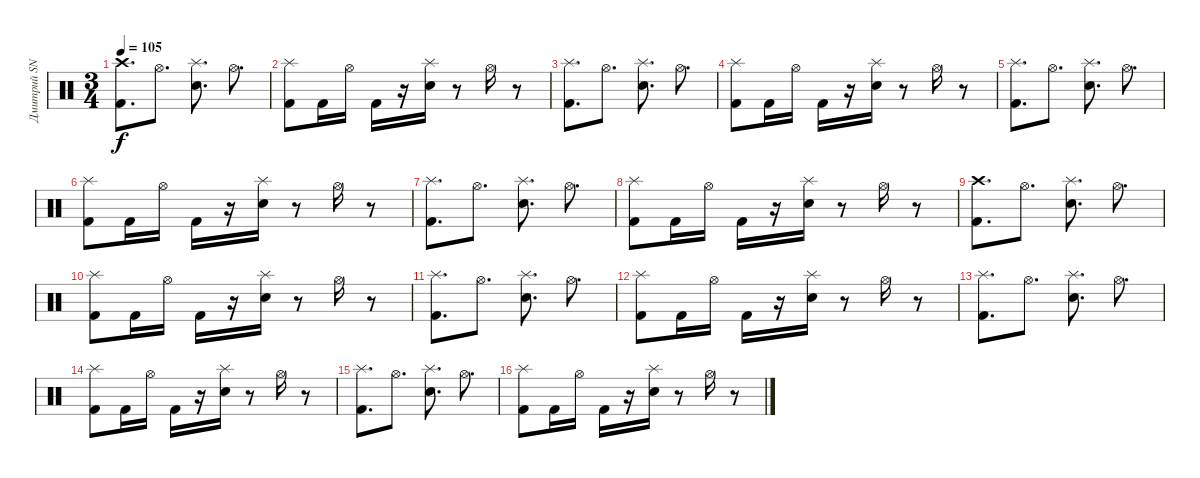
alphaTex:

\track ("Дмитрий SNAKE Хакимов" "Дмитрий SN") {instrument percussion}
\staff {score}
\articulation defaults
\ts (3 4)
\tempo 105
\clef neutral
\ks c
("Crash high (hit)" "Kick (hit) 2").8{d dy f} "Hi-Hat (open)".8{d} ("Splash (hit)" "Snare (hit) 2").8{d} "Hi-Hat (open)".8{d} |
("Splash (hit)" "Kick (hit) 2").8 "Kick (hit) 2".16 "Hi-Hat (open)".16 "Kick (hit) 2".16 r.16 ("Splash (hit)" "Snare (hit) 2").16 r.8 "Hi-Hat (open)".16 r.8 |
("Splash (hit)" "Kick (hit) 2").8{d} "Hi-Hat (open)".8{d} ("Splash (hit)" "Snare (hit) 2").8{d} "Hi-Hat (open)".8{d} |
("Splash (hit)" "Kick (hit) 2").8 "Kick (hit) 2".16 "Hi-Hat (open)".16 "Kick (hit) 2".16 r.16 ("Splash (hit)" "Snare (hit) 2").16 r.8 "Hi-Hat (open)".16 r.8 |
("Splash (hit)" "Kick (hit) 2").8{d} "Hi-Hat (open)".8{d} ("Splash (hit)" "Snare (hit) 2").8{d} "Hi-Hat (open)".8{d} |
("Splash (hit)" "Kick (hit) 2").8 "Kick (hit) 2".16 "Hi-Hat (open)".16 "Kick (hit) 2".16 r.16 ("Splash (hit)" "Snare (hit) 2").16 r.8 "Hi-Hat (open)".16 r.8 |
("Splash (hit)" "Kick (hit) 2").8{d} "Hi-Hat (open)".8{d} ("Splash (hit)" "Snare (hit) 2").8{d} "Hi-Hat (open)".8{d} |
("Splash (hit)" "Kick (hit) 2").8 "Kick (hit) 2".16 "Hi-Hat (open)".16 "Kick (hit) 2".16 r.16 ("Splash (hit)" "Snare (hit) 2").16 r.8 "Hi-Hat (open)".16 r.8 |
("Crash high (hit)" "Kick (hit) 2").8{d} "Hi-Hat (open)".8{d} ("Splash (hit)" "Snare (hit) 2").8{d} "Hi-Hat (open)".8{d} |
("Splash (hit)" "Kick (hit) 2").8 "Kick (hit) 2".16 "Hi-Hat (open)".16 "Kick (hit) 2".16 r.16 ("Splash (hit)" "Snare (hit) 2").16 r.8 "Hi-Hat (open)".16 r.8 |
("Splash (hit)" "Kick (hit) 2").8{d} "Hi-Hat (open)".8{d} ("Splash (hit)" "Snare (hit) 2").8{d} "Hi-Hat (open)".8{d} |
("Splash (hit)" "Kick (hit) 2").8 "Kick (hit) 2".16 "Hi-Hat (open)".16 "Kick (hit) 2".16 r.16 ("Splash (hit)" "Snare (hit) 2").16 r.8 "Hi-Hat (open)".16 r.8 |
("Splash (hit)" "Kick (hit) 2").8{d} "Hi-Hat (open)".8{d} ("Splash (hit)" "Snare (hit) 2").8{d} "Hi-Hat (open)".8{d} |
("Splash (hit)" "Kick (hit) 2").8 "Kick (hit) 2".16 "Hi-Hat (open)".16 "Kick (hit) 2".16 r.16 ("Splash (hit)" "Snare (hit) 2").16 r.8 "Hi-Hat (open)".16 r.8 |
("Splash (hit)" "Kick (hit) 2").8{d} "Hi-Hat (open)".8{d} ("Splash (hit)" "Snare (hit) 2").8{d} "Hi-Hat (open)".8{d} |
("Splash (hit)" "Kick (hit) 2").8 "Kick (hit) 2".16 "Hi-Hat (open)".16 "Kick (hit) 2".16 r.16 ("Splash (hit)" "Snare (hit) 2").16 r.8 "Hi-Hat (open)".16 r.8
